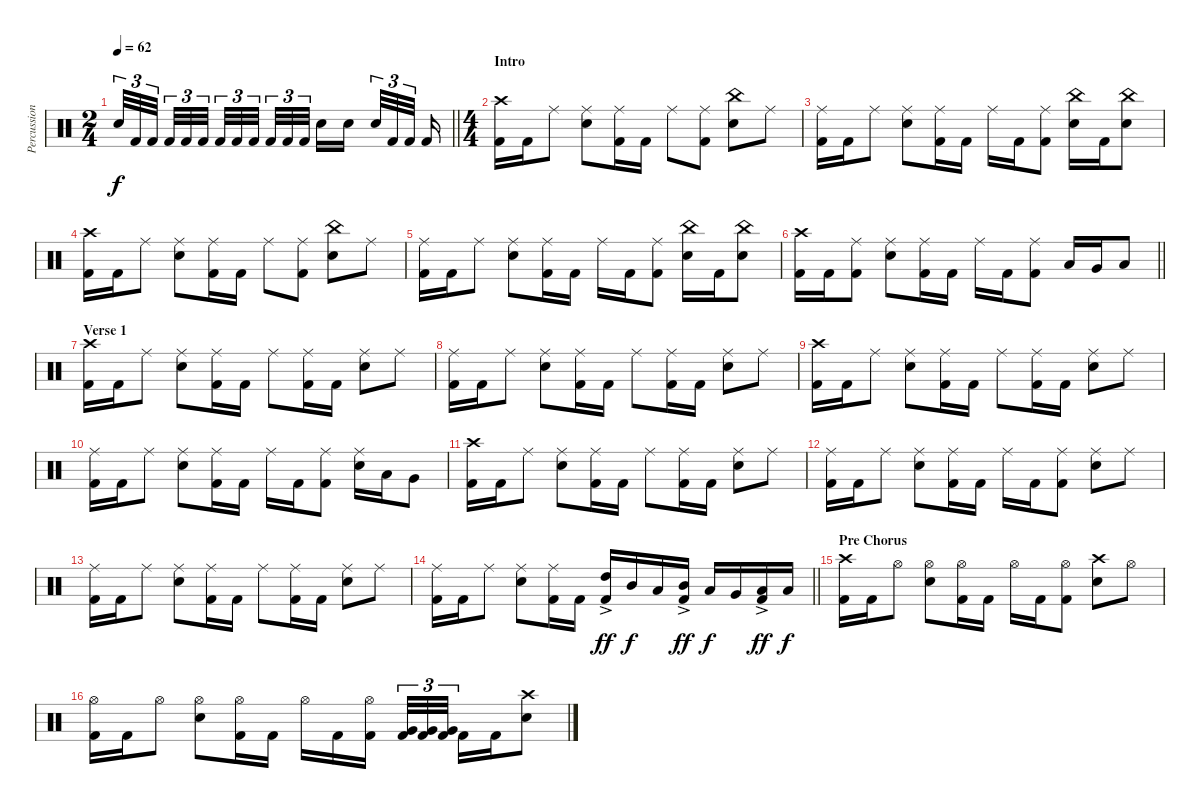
\track ("Percussion" "Percussion") {instrument percussion}
\staff {score}
\articulation defaults
\ts (2 4)
\tempo 62
\clef neutral
\barLineRight lightlight
\ks c "Snare (hit) 2".32{tu (3 2) dy f} "Kick (hit) 2".32{tu (3 2)} "Kick (hit) 2".32{tu (3 2)} "Kick (hit) 2".32{tu (3 2)} "Kick (hit) 2".32{tu (3 2)} "Kick (hit) 2".32{tu (3 2)} "Kick (hit) 2".32{tu (3 2)} "Kick (hit) 2".32{tu (3 2)} "Kick (hit) 2".32{tu (3 2)} "Kick (hit) 2".32{tu (3 2)} "Kick (hit) 2".32{tu (3 2)} "Kick (hit) 2".32{tu (3 2)} "Snare (hit) 2".16 "Snare (hit) 2".16 "Snare (hit) 2".32{tu (3 2)} "Kick (hit) 2".32{tu (3 2)} "Kick (hit) 2".32{tu (3 2)} "Kick (hit) 2".16
|
\ts (4 4)
\section ("" "Intro")
("Crash high (hit)" "Kick (hit) 2").16 "Kick (hit) 2".16 "Ride (middle)".8 ("Ride (middle)" "Snare (hit) 2").8 ("Ride (middle)" "Kick (hit) 2").16 "Kick (hit) 2".16 "Ride (middle)".8 ("Ride (middle)" "Kick (hit) 2").8 ("China (hit)" "Snare (hit) 2").8 "Ride (middle)".8 |
("Ride (middle)" "Kick (hit) 2").16 "Kick (hit) 2".16 "Ride (middle)".8 ("Ride (middle)" "Snare (hit) 2").8 ("Ride (middle)" "Kick (hit) 2").16 "Kick (hit) 2".16 "Ride (middle)".16 "Kick (hit) 2".16 ("Ride (middle)" "Kick (hit) 2").8 ("China (hit)" "Snare (hit) 2").16 "Kick (hit) 2".16 ("China (hit)" "Snare (hit) 2").8 |
("Crash high (hit)" "Kick (hit) 2").16 "Kick (hit) 2".16 "Ride (middle)".8 ("Ride (middle)" "Snare (hit) 2").8 ("Ride (middle)" "Kick (hit) 2").16 "Kick (hit) 2".16 "Ride (middle)".8 ("Ride (middle)" "Kick (hit) 2").8 ("China (hit)" "Snare (hit) 2").8 "Ride (middle)".8 |
("Ride (middle)" "Kick (hit) 2").16 "Kick (hit) 2".16 "Ride (middle)".8 ("Ride (middle)" "Snare (hit) 2").8 ("Ride (middle)" "Kick (hit) 2").16 "Kick (hit) 2".16 "Ride (middle)".16 "Kick (hit) 2".16 ("Ride (middle)" "Kick (hit) 2").8 ("China (hit)" "Snare (hit) 2").16 "Kick (hit) 2".16 ("China (hit)" "Snare (hit) 2").8 |
\barLineRight lightlight
("Crash high (hit)" "Kick (hit) 2").16 "Kick (hit) 2".16 ("Ride (middle)" "Kick (hit) 2").8 ("Ride (middle)" "Snare (hit) 2").8 ("Ride (middle)" "Kick (hit) 2").16 "Kick (hit) 2".16 "Ride (middle)".16 "Kick (hit) 2".16 ("Ride (middle)" "Kick (hit) 2").8 "Low Tom (hit)".16 "Very Low Tom (hit)".16 "Low Floor Tom (hit)".8 |
\section ("" "Verse 1")
("Crash high (hit)" "Kick (hit) 2").16 "Kick (hit) 2".16 "Ride (middle)".8 ("Ride (middle)" "Snare (hit) 2").8 ("Ride (middle)" "Kick (hit) 2").16 "Kick (hit) 2".16 "Ride (middle)".8 ("Ride (middle)" "Kick (hit) 2").16 "Kick (hit) 2".16 ("Ride (middle)" "Snare (hit) 2").8 "Ride (middle)".8 |
("Ride (middle)" "Kick (hit) 2").16 "Kick (hit) 2".16 "Ride (middle)".8 ("Ride (middle)" "Snare (hit) 2").8 ("Ride (middle)" "Kick (hit) 2").16 "Kick (hit) 2".16 "Ride (middle)".8 ("Ride (middle)" "Kick (hit) 2").16 "Kick (hit) 2".16 ("Ride (middle)" "Snare (hit) 2").8 "Ride (middle)".8 |
("Crash high (hit)" "Kick (hit) 2").16 "Kick (hit) 2".16 "Ride (middle)".8 ("Ride (middle)" "Snare (hit) 2").8 ("Ride (middle)" "Kick (hit) 2").16 "Kick (hit) 2".16 "Ride (middle)".8 ("Ride (middle)" "Kick (hit) 2").16 "Kick (hit) 2".16 ("Ride (middle)" "Snare (hit) 2").8 "Ride (middle)".8 |
("Ride (middle)" "Kick (hit) 2").16 "Kick (hit) 2".16 "Ride (middle)".8 ("Ride (middle)" "Snare (hit) 2").8 ("Ride (middle)" "Kick (hit) 2").16 "Kick (hit) 2".16 "Ride (middle)".16 "Kick (hit) 2".16 ("Ride (middle)" "Kick (hit) 2").8 ("Ride (middle)" "Snare (hit) 2").16 "Low Tom (hit)".16 "Very Low Tom (hit)".8 |
("Crash high (hit)" "Kick (hit) 2").16 "Kick (hit) 2".16 "Ride (middle)".8 ("Ride (middle)" "Snare (hit) 2").8 ("Ride (middle)" "Kick (hit) 2").16 "Kick (hit) 2".16 "Ride (middle)".8 ("Ride (middle)" "Kick (hit) 2").16 "Kick (hit) 2".16 ("Ride (middle)" "Snare (hit) 2").8 "Ride (middle)".8 |
("Ride (middle)" "Kick (hit) 2").16 "Kick (hit) 2".16 "Ride (middle)".8 ("Ride (middle)" "Snare (hit) 2").8 ("Ride (middle)" "Kick (hit) 2").16 "Kick (hit) 2".16 "Ride (middle)".16 "Kick (hit) 2".16 ("Ride (middle)" "Kick (hit) 2").8 ("Ride (middle)" "Snare (hit) 2").8 "Ride (middle)".8 |
("Ride (middle)" "Kick (hit) 2").16 "Kick (hit) 2".16 "Ride (middle)".8 ("Ride (middle)" "Snare (hit) 2").8 ("Ride (middle)" "Kick (hit) 2").16 "Kick (hit) 2".16 "Ride (middle)".8 ("Ride (middle)" "Kick (hit) 2").16 "Kick (hit) 2".16 ("Ride (middle)" "Snare (hit) 2").8 "Ride (middle)".8 |
\barLineRight lightlight
("Ride (middle)" "Kick (hit) 2").16 "Kick (hit) 2".16 "Ride (middle)".8 ("Ride (middle)" "Snare (hit) 2").8 ("Ride (middle)" "Kick (hit) 2").16 "Kick (hit) 2".16 ("High Tom (hit)"{ac} "Kick (hit) 2").16{dy ff} "Mid Tom (hit)".16{dy f} "Low Tom (hit)".16 ("Mid Tom (hit)"{ac} "Kick (hit) 2").16{dy ff} "Low Tom (hit)".16{dy f} "Very Low Tom (hit)".16 ("Low Floor Tom (hit)"{ac} "Kick (hit) 2").16{dy ff} "Low Floor Tom (hit)".16{dy f} |
\section ("" "Pre Chorus")
("Crash high (hit)" "Kick (hit) 2").16 "Kick (hit) 2".16 "Hi-Hat (open)".8 ("Hi-Hat (open)" "Snare (hit) 2").8 ("Hi-Hat (open)" "Kick (hit) 2").16 "Kick (hit) 2".16 "Hi-Hat (open)".16 "Kick (hit) 2".16 ("Hi-Hat (open)" "Kick (hit) 2").8 ("Crash high (hit)" "Snare (hit) 2").8 "Hi-Hat (open)".8 |
("Hi-Hat (open)" "Kick (hit) 2").16 "Kick (hit) 2".16 "Hi-Hat (open)".8 ("Hi-Hat (open)" "Snare (hit) 2").8 ("Hi-Hat (open)" "Kick (hit) 2").16 "Kick (hit) 2".16 "Hi-Hat (open)".16 "Kick (hit) 2".16 ("Hi-Hat (open)" "Kick (hit) 2").16 ("Very Low Tom (hit)" "Kick (hit) 2").32{tu (3 2)} ("Very Low Tom (hit)" "Kick (hit) 2").32{tu (3 2)} ("Very Low Tom (hit)" "Kick (hit) 2").32{tu (3 2)} "Kick (hit) 2".16 "Kick (hit) 2".16 ("Crash high (hit)" "Snare (hit) 2").8
